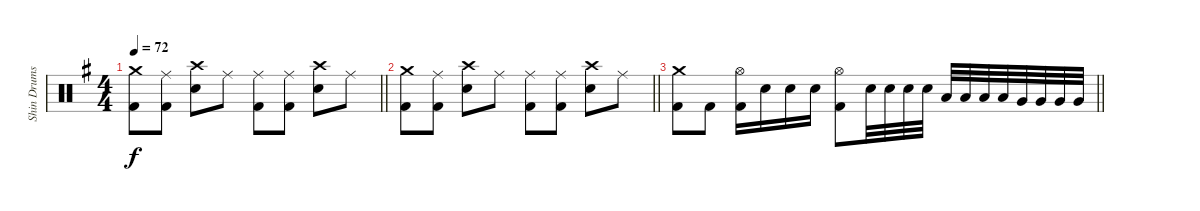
\track ("Shin Drums" "Shin Drums") {instrument percussion}
\staff {score}
\articulation defaults
\ts (4 4)
\tempo 72
\clef neutral
\barLineRight lightlight
\ks g
("Crash medium (hit)" "Kick (hit) 2").8{dy f} ("Ride (middle)" "Kick (hit) 2").8 ("Crash high (hit)" "Snare (hit) 2").8 "Ride (middle)".8 ("Ride (middle)" "Kick (hit) 2").8 ("Ride (middle)" "Kick (hit) 2").8 ("Crash high (hit)" "Snare (hit) 2").8 "Ride (middle)".8 |
\barLineRight lightlight
("Crash medium (hit)" "Kick (hit) 2").8 ("Ride (middle)" "Kick (hit) 2").8 ("Crash high (hit)" "Snare (hit) 2").8 "Ride (middle)".8 ("Ride (middle)" "Kick (hit) 2").8 ("Ride (middle)" "Kick (hit) 2").8 ("Crash high (hit)" "Snare (hit) 2").8 "Ride (middle)".8 |
\barLineRight lightlight
("Crash medium (hit)" "Kick (hit) 2").8 "Kick (hit) 2".8 ("Hi-Hat (open)" "Kick (hit) 2").16 "Snare (hit) 2".16 "Snare (hit) 2".16 "Snare (hit) 2".16 ("Hi-Hat (open)" "Kick (hit) 2").8 "Snare (hit) 2".32 "Snare (hit) 2".32 "Snare (hit) 2".32 "Snare (hit) 2".32 "Low Tom (hit)".32 "Low Tom (hit)".32 "Low Tom (hit)".32 "Low Tom (hit)".32 "Very Low Tom (hit)".32 "Very Low Tom (hit)".32 "Very Low Tom (hit)".32 "Very Low Tom (hit)".32
